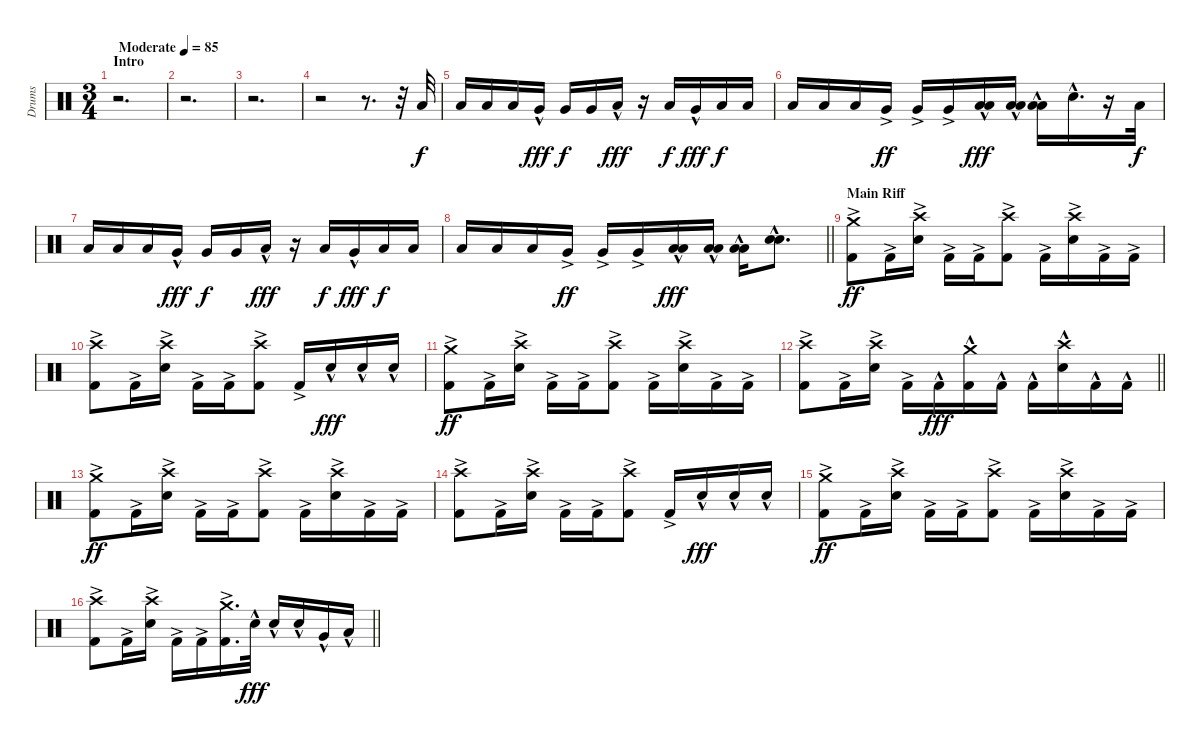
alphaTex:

\track ("Drums" "Drums") {instrument percussion}
\staff {score}
\articulation defaults
\ts (3 4)
\section ("" "Intro")
\tempo (85 "Moderate")
\clef neutral
\ks c
r.2{d dy f} |
r.2{d} |
r.2{d} |
r.2 r.8{d volume 16} r.32 "Low Floor Tom (hit)".32 |
"Low Floor Tom (hit)".16 "Low Floor Tom (hit)".16 "Low Floor Tom (hit)".16 "Very Low Tom (hit)"{hac}.16{dy fff} "Very Low Tom (hit)".16{dy f} "Very Low Tom (hit)".16 "Low Floor Tom (hit)"{hac}.16{dy fff} r.16 "Low Floor Tom (hit)".16{dy f} "Very Low Tom (hit)"{hac}.16{dy fff} "Low Floor Tom (hit)".16{dy f} "Low Floor Tom (hit)".16 |
"Low Floor Tom (hit)".16 "Low Floor Tom (hit)".16 "Low Floor Tom (hit)".16 "Very Low Tom (hit)"{ac}.16{dy ff} "Very Low Tom (hit)"{ac}.16 "Very Low Tom (hit)"{ac}.16 ("Low Tom (hit)"{hac} "Low Tom (hit)"{hac}).16{dy fff} ("Low Tom (hit)"{hac} "Low Tom (hit)"{hac}).16 ("Low Tom (hit)"{hac} "Low Tom (hit)"{hac}).16 "Electric Snare (hit)"{hac}.16{d} r.16 "Low Floor Tom (hit)".32{dy f} |
"Low Floor Tom (hit)".16 "Low Floor Tom (hit)".16 "Low Floor Tom (hit)".16 "Very Low Tom (hit)"{hac}.16{dy fff} "Very Low Tom (hit)".16{dy f} "Very Low Tom (hit)".16 "Low Floor Tom (hit)"{hac}.16{dy fff} r.16 "Low Floor Tom (hit)".16{dy f} "Very Low Tom (hit)"{hac}.16{dy fff} "Low Floor Tom (hit)".16{dy f} "Low Floor Tom (hit)".16 |
\barLineRight lightlight "Low Floor Tom (hit)".16 "Low Floor Tom (hit)".16 "Low Floor Tom (hit)".16 "Very Low Tom (hit)"{ac}.16{dy ff} "Very Low Tom (hit)"{ac}.16 "Very Low Tom (hit)"{ac}.16
("Low Tom (hit)"{hac} "Low Tom (hit)"{hac}).16{dy fff} ("Low Tom (hit)"{hac} "Low Tom (hit)"{hac}).16 ("Low Tom (hit)"{hac} "Low Tom (hit)"{hac}).16 ("Electric Snare (hit)"{hac} "Snare (hit) 2"{hac}).8{d} |
\section ("" "Main Riff")
("Crash medium (hit)" "Kick (hit) 2"{ac}).8{dy ff volume 15} "Kick (hit) 2"{ac}.16 ("Crash high (hit)" "Electric Snare (hit)"{ac}).16 "Kick (hit) 2"{ac}.16 "Kick (hit) 2"{ac}.16 ("Crash high (hit)" "Kick (hit) 2"{ac}).8 "Kick (hit) 2"{ac}.16 ("Crash high (hit)" "Electric Snare (hit)"{ac}).16 "Kick (hit) 2"{ac}.16 "Kick (hit) 2"{ac}.16 |
("Crash high (hit)" "Kick (hit) 2"{ac}).8 "Kick (hit) 2"{ac}.16 ("Crash high (hit)" "Electric Snare (hit)"{ac}).16 "Kick (hit) 2"{ac}.16 "Kick (hit) 2"{ac}.16 ("Crash high (hit)" "Kick (hit) 2"{ac}).8 "Kick (hit) 2"{ac}.16 "Electric Snare (hit)"{hac}.16{dy fff} "Electric Snare (hit)"{hac}.16 "Electric Snare (hit)"{hac}.16 |
("Crash medium (hit)" "Kick (hit) 2"{ac}).8{dy ff} "Kick (hit) 2"{ac}.16 ("Crash high (hit)" "Electric Snare (hit)"{ac}).16 "Kick (hit) 2"{ac}.16 "Kick (hit) 2"{ac}.16 ("Crash high (hit)" "Kick (hit) 2"{ac}).8 "Kick (hit) 2"{ac}.16 ("Crash high (hit)" "Electric Snare (hit)"{ac}).16 "Kick (hit) 2"{ac}.16 "Kick (hit) 2"{ac}.16 |
\barLineRight lightlight
("Crash high (hit)" "Kick (hit) 2"{ac}).8 "Kick (hit) 2"{ac}.16 ("Crash high (hit)" "Electric Snare (hit)"{ac}).16 "Kick (hit) 2"{ac}.16 "Kick (hit) 2"{hac}.16{dy fff} ("Crash medium (hit)" "Kick (hit) 2"{hac}).16 "Kick (hit) 2"{hac}.16 "Kick (hit) 2"{hac}.16 ("Crash high (hit)" "Electric Snare (hit)"{hac}).16 "Kick (hit) 2"{hac}.16 "Kick (hit) 2"{hac}.16 |
("Crash medium (hit)" "Kick (hit) 2"{ac}).8{dy ff} "Kick (hit) 2"{ac}.16 ("Crash high (hit)" "Electric Snare (hit)"{ac}).16 "Kick (hit) 2"{ac}.16 "Kick (hit) 2"{ac}.16 ("Crash high (hit)" "Kick (hit) 2"{ac}).8 "Kick (hit) 2"{ac}.16 ("Crash high (hit)" "Electric Snare (hit)"{ac}).16 "Kick (hit) 2"{ac}.16 "Kick (hit) 2"{ac}.16 |
("Crash high (hit)" "Kick (hit) 2"{ac}).8 "Kick (hit) 2"{ac}.16 ("Crash high (hit)" "Electric Snare (hit)"{ac}).16 "Kick (hit) 2"{ac}.16 "Kick (hit) 2"{ac}.16 ("Crash high (hit)" "Kick (hit) 2"{ac}).8 "Kick (hit) 2"{ac}.16 "Electric Snare (hit)"{hac}.16{dy fff} "Electric Snare (hit)"{hac}.16 "Electric Snare (hit)"{hac}.16 |
("Crash medium (hit)" "Kick (hit) 2"{ac}).8{dy ff} "Kick (hit) 2"{ac}.16 ("Crash high (hit)" "Electric Snare (hit)"{ac}).16 "Kick (hit) 2"{ac}.16 "Kick (hit) 2"{ac}.16 ("Crash high (hit)" "Kick (hit) 2"{ac}).8 "Kick (hit) 2"{ac}.16 ("Crash high (hit)" "Electric Snare (hit)"{ac}).16 "Kick (hit) 2"{ac}.16 "Kick (hit) 2"{ac}.16 |
\barLineRight lightlight
("Crash high (hit)" "Kick (hit) 2"{ac}).8 "Kick (hit) 2"{ac}.16 ("Crash high (hit)" "Electric Snare (hit)"{ac}).16 "Kick (hit) 2"{ac}.16 "Kick (hit) 2"{ac}.16 ("Crash medium (hit)" "Kick (hit) 2"{ac}).16{d} "Electric Snare (hit)"{hac}.32{dy fff} "Electric Snare (hit)"{hac}.16 "Electric Snare (hit)"{hac}.16 "Very Low Tom (hit)"{hac}.16 "Low Tom (hit)"{hac}.16
